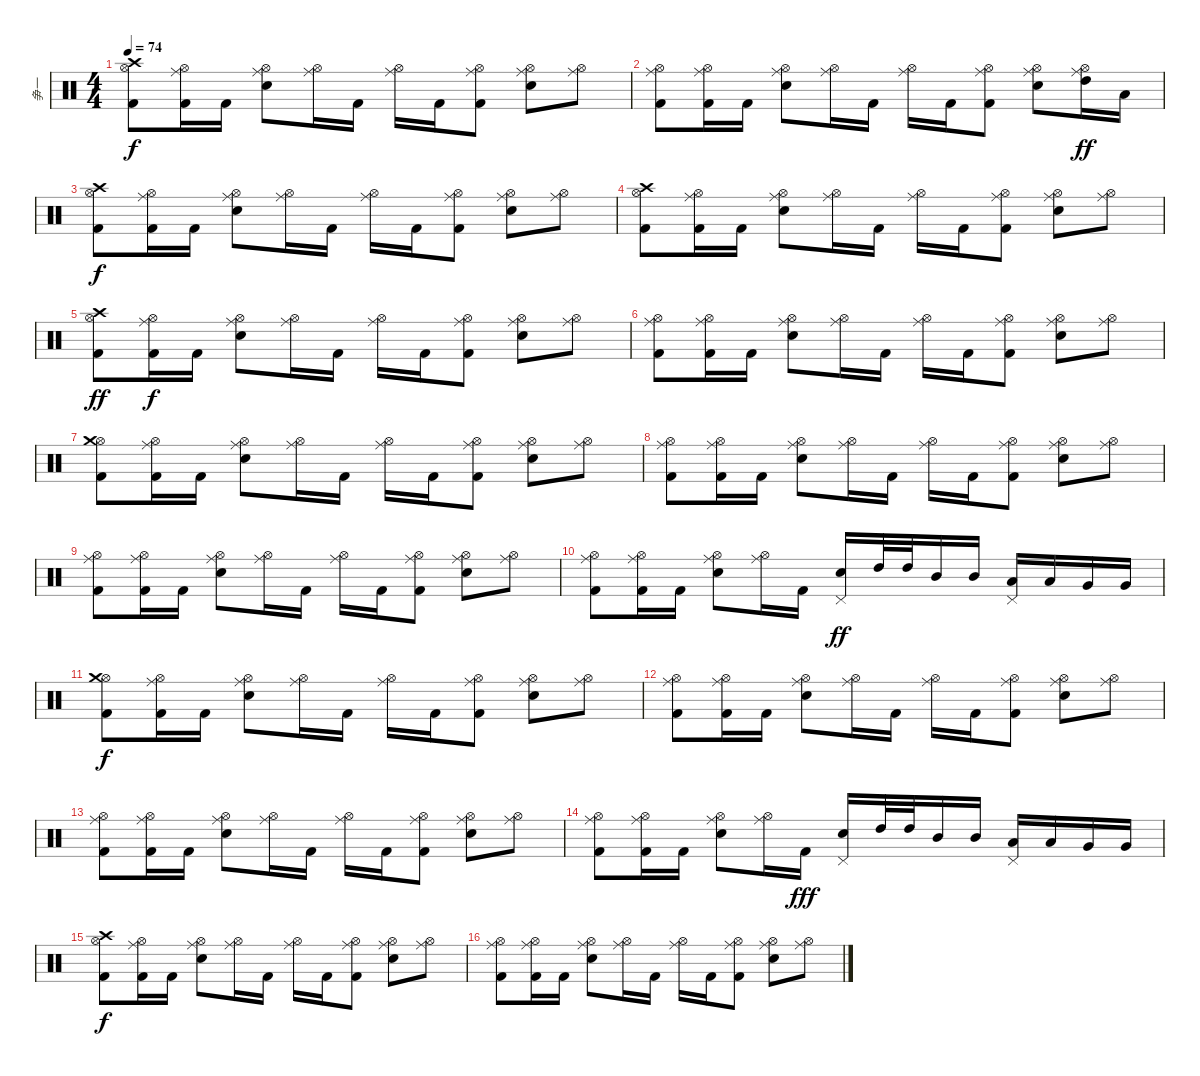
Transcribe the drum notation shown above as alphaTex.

\track ("争一" "争一") {instrument percussion}
\staff {score}
\articulation defaults
\ts (4 4)
\tempo 74
\clef neutral
\ks c
("Hi-Hat (open)" "Crash high (hit)" "Kick (hit) 2").8{dy f} ("Hi-Hat (open)" "Ride (middle)" "Kick (hit) 2").16 "Kick (hit) 2".16 ("Hi-Hat (open)" "Ride (middle)" "Snare (hit) 2").8 ("Hi-Hat (open)" "Ride (middle)").16 "Kick (hit) 2".16 ("Hi-Hat (open)" "Ride (middle)").16 "Kick (hit) 2".16 ("Hi-Hat (open)" "Ride (middle)" "Kick (hit) 2").8 ("Hi-Hat (open)" "Ride (middle)" "Snare (hit) 2").8 ("Hi-Hat (open)" "Ride (middle)").8 |
("Hi-Hat (open)" "Ride (middle)" "Kick (hit) 2").8 ("Hi-Hat (open)" "Ride (middle)" "Kick (hit) 2").16 "Kick (hit) 2".16 ("Hi-Hat (open)" "Ride (middle)" "Snare (hit) 2").8 ("Hi-Hat (open)" "Ride (middle)").16 "Kick (hit) 2".16 ("Hi-Hat (open)" "Ride (middle)").16 "Kick (hit) 2".16 ("Hi-Hat (open)" "Ride (middle)" "Kick (hit) 2").8 ("Hi-Hat (open)" "Ride (middle)" "Snare (hit) 2").8 ("Hi-Hat (open)" "Ride (middle)" "High Tom (hit)").16{dy ff} "Low Tom (hit)".16 |
("Hi-Hat (open)" "Crash high (hit)" "Kick (hit) 2").8{dy f} ("Hi-Hat (open)" "Ride (middle)" "Kick (hit) 2").16 "Kick (hit) 2".16 ("Hi-Hat (open)" "Ride (middle)" "Snare (hit) 2").8 ("Hi-Hat (open)" "Ride (middle)").16 "Kick (hit) 2".16 ("Hi-Hat (open)" "Ride (middle)").16 "Kick (hit) 2".16 ("Hi-Hat (open)" "Ride (middle)" "Kick (hit) 2").8 ("Hi-Hat (open)" "Ride (middle)" "Snare (hit) 2").8 ("Hi-Hat (open)" "Ride (middle)").8 |
("Hi-Hat (open)" "Crash high (hit)" "Kick (hit) 2").8 ("Hi-Hat (open)" "Ride (middle)" "Kick (hit) 2").16 "Kick (hit) 2".16 ("Hi-Hat (open)" "Ride (middle)" "Snare (hit) 2").8 ("Hi-Hat (open)" "Ride (middle)").16 "Kick (hit) 2".16 ("Hi-Hat (open)" "Ride (middle)").16 "Kick (hit) 2".16 ("Hi-Hat (open)" "Ride (middle)" "Kick (hit) 2").8 ("Hi-Hat (open)" "Ride (middle)" "Snare (hit) 2").8 ("Hi-Hat (open)" "Ride (middle)").8 |
("Hi-Hat (open)" "Crash high (hit)" "Kick (hit) 2").8{dy ff} ("Hi-Hat (open)" "Ride (middle)" "Kick (hit) 2").16{dy f} "Kick (hit) 2".16 ("Hi-Hat (open)" "Ride (middle)" "Snare (hit) 2").8 ("Hi-Hat (open)" "Ride (middle)").16 "Kick (hit) 2".16 ("Hi-Hat (open)" "Ride (middle)").16 "Kick (hit) 2".16 ("Hi-Hat (open)" "Ride (middle)" "Kick (hit) 2").8 ("Hi-Hat (open)" "Ride (middle)" "Snare (hit) 2").8 ("Hi-Hat (open)" "Ride (middle)").8 |
("Hi-Hat (open)" "Ride (middle)" "Kick (hit) 2").8 ("Hi-Hat (open)" "Ride (middle)" "Kick (hit) 2").16 "Kick (hit) 2".16 ("Hi-Hat (open)" "Ride (middle)" "Snare (hit) 2").8 ("Hi-Hat (open)" "Ride (middle)").16 "Kick (hit) 2".16 ("Hi-Hat (open)" "Ride (middle)").16 "Kick (hit) 2".16 ("Hi-Hat (open)" "Ride (middle)" "Kick (hit) 2").8 ("Hi-Hat (open)" "Ride (middle)" "Snare (hit) 2").8 ("Hi-Hat (open)" "Ride (middle)").8 |
("Hi-Hat (open)" "Crash medium (hit)" "Kick (hit) 2").8 ("Hi-Hat (open)" "Ride (middle)" "Kick (hit) 2").16 "Kick (hit) 2".16 ("Hi-Hat (open)" "Ride (middle)" "Snare (hit) 2").8 ("Hi-Hat (open)" "Ride (middle)").16 "Kick (hit) 2".16 ("Hi-Hat (open)" "Ride (middle)").16 "Kick (hit) 2".16 ("Hi-Hat (open)" "Ride (middle)" "Kick (hit) 2").8 ("Hi-Hat (open)" "Ride (middle)" "Snare (hit) 2").8 ("Hi-Hat (open)" "Ride (middle)").8 |
("Hi-Hat (open)" "Ride (middle)" "Kick (hit) 2").8 ("Hi-Hat (open)" "Ride (middle)" "Kick (hit) 2").16 "Kick (hit) 2".16 ("Hi-Hat (open)" "Ride (middle)" "Snare (hit) 2").8 ("Hi-Hat (open)" "Ride (middle)").16 "Kick (hit) 2".16 ("Hi-Hat (open)" "Ride (middle)").16 "Kick (hit) 2".16 ("Hi-Hat (open)" "Ride (middle)" "Kick (hit) 2").8 ("Hi-Hat (open)" "Ride (middle)" "Snare (hit) 2").8 ("Hi-Hat (open)" "Ride (middle)").8 |
("Hi-Hat (open)" "Ride (middle)" "Kick (hit) 2").8 ("Hi-Hat (open)" "Ride (middle)" "Kick (hit) 2").16 "Kick (hit) 2".16 ("Hi-Hat (open)" "Ride (middle)" "Snare (hit) 2").8 ("Hi-Hat (open)" "Ride (middle)").16 "Kick (hit) 2".16 ("Hi-Hat (open)" "Ride (middle)").16 "Kick (hit) 2".16 ("Hi-Hat (open)" "Ride (middle)" "Kick (hit) 2").8 ("Hi-Hat (open)" "Ride (middle)" "Snare (hit) 2").8 ("Hi-Hat (open)" "Ride (middle)").8 |
("Hi-Hat (open)" "Ride (middle)" "Kick (hit) 2").8 ("Hi-Hat (open)" "Ride (middle)" "Kick (hit) 2").16 "Kick (hit) 2".16 ("Hi-Hat (open)" "Ride (middle)" "Snare (hit) 2").8 ("Hi-Hat (open)" "Ride (middle)").16 "Kick (hit) 2".16 ("Pedal Hi-Hat (hit)" "Snare (hit) 2").16{dy ff} "High Tom (hit)".32 "High Tom (hit)".32 "Mid Tom (hit)".16 "Mid Tom (hit)".16 ("Pedal Hi-Hat (hit)" "Low Tom (hit)").16 "Low Tom (hit)".16 "Very Low Tom (hit)".16 "Very Low Tom (hit)".16 |
("Hi-Hat (open)" "Crash medium (hit)" "Kick (hit) 2").8{dy f} ("Hi-Hat (open)" "Ride (middle)" "Kick (hit) 2").16 "Kick (hit) 2".16 ("Hi-Hat (open)" "Ride (middle)" "Snare (hit) 2").8 ("Hi-Hat (open)" "Ride (middle)").16 "Kick (hit) 2".16 ("Hi-Hat (open)" "Ride (middle)").16 "Kick (hit) 2".16 ("Hi-Hat (open)" "Ride (middle)" "Kick (hit) 2").8 ("Hi-Hat (open)" "Ride (middle)" "Snare (hit) 2").8 ("Hi-Hat (open)" "Ride (middle)").8 |
("Hi-Hat (open)" "Ride (middle)" "Kick (hit) 2").8 ("Hi-Hat (open)" "Ride (middle)" "Kick (hit) 2").16 "Kick (hit) 2".16 ("Hi-Hat (open)" "Ride (middle)" "Snare (hit) 2").8 ("Hi-Hat (open)" "Ride (middle)").16 "Kick (hit) 2".16 ("Hi-Hat (open)" "Ride (middle)").16 "Kick (hit) 2".16 ("Hi-Hat (open)" "Ride (middle)" "Kick (hit) 2").8 ("Hi-Hat (open)" "Ride (middle)" "Snare (hit) 2").8 ("Hi-Hat (open)" "Ride (middle)").8 |
("Hi-Hat (open)" "Ride (middle)" "Kick (hit) 2").8 ("Hi-Hat (open)" "Ride (middle)" "Kick (hit) 2").16 "Kick (hit) 2".16 ("Hi-Hat (open)" "Ride (middle)" "Snare (hit) 2").8 ("Hi-Hat (open)" "Ride (middle)").16 "Kick (hit) 2".16 ("Hi-Hat (open)" "Ride (middle)").16 "Kick (hit) 2".16 ("Hi-Hat (open)" "Ride (middle)" "Kick (hit) 2").8 ("Hi-Hat (open)" "Ride (middle)" "Snare (hit) 2").8 ("Hi-Hat (open)" "Ride (middle)").8 |
("Hi-Hat (open)" "Ride (middle)" "Kick (hit) 2").8 ("Hi-Hat (open)" "Ride (middle)" "Kick (hit) 2").16 "Kick (hit) 2".16 ("Hi-Hat (open)" "Ride (middle)" "Snare (hit) 2").8 ("Hi-Hat (open)" "Ride (middle)").16 "Kick (hit) 2".16{dy fff} ("Pedal Hi-Hat (hit)" "Snare (hit) 2").16 "High Tom (hit)".32 "High Tom (hit)".32 "Mid Tom (hit)".16 "Mid Tom (hit)".16 ("Pedal Hi-Hat (hit)" "Low Tom (hit)").16 "Low Tom (hit)".16 "Very Low Tom (hit)".16 "Very Low Tom (hit)".16 |
("Hi-Hat (open)" "Crash high (hit)" "Kick (hit) 2").8{dy f} ("Hi-Hat (open)" "Ride (middle)" "Kick (hit) 2").16 "Kick (hit) 2".16 ("Hi-Hat (open)" "Ride (middle)" "Snare (hit) 2").8 ("Hi-Hat (open)" "Ride (middle)").16 "Kick (hit) 2".16 ("Hi-Hat (open)" "Ride (middle)").16 "Kick (hit) 2".16 ("Hi-Hat (open)" "Ride (middle)" "Kick (hit) 2").8 ("Hi-Hat (open)" "Ride (middle)" "Snare (hit) 2").8 ("Hi-Hat (open)" "Ride (middle)").8 |
("Hi-Hat (open)" "Ride (middle)" "Kick (hit) 2").8 ("Hi-Hat (open)" "Ride (middle)" "Kick (hit) 2").16 "Kick (hit) 2".16 ("Hi-Hat (open)" "Ride (middle)" "Snare (hit) 2").8 ("Hi-Hat (open)" "Ride (middle)").16 "Kick (hit) 2".16 ("Hi-Hat (open)" "Ride (middle)").16 "Kick (hit) 2".16 ("Hi-Hat (open)" "Ride (middle)" "Kick (hit) 2").8 ("Hi-Hat (open)" "Ride (middle)" "Snare (hit) 2").8 ("Hi-Hat (open)" "Ride (middle)").8
